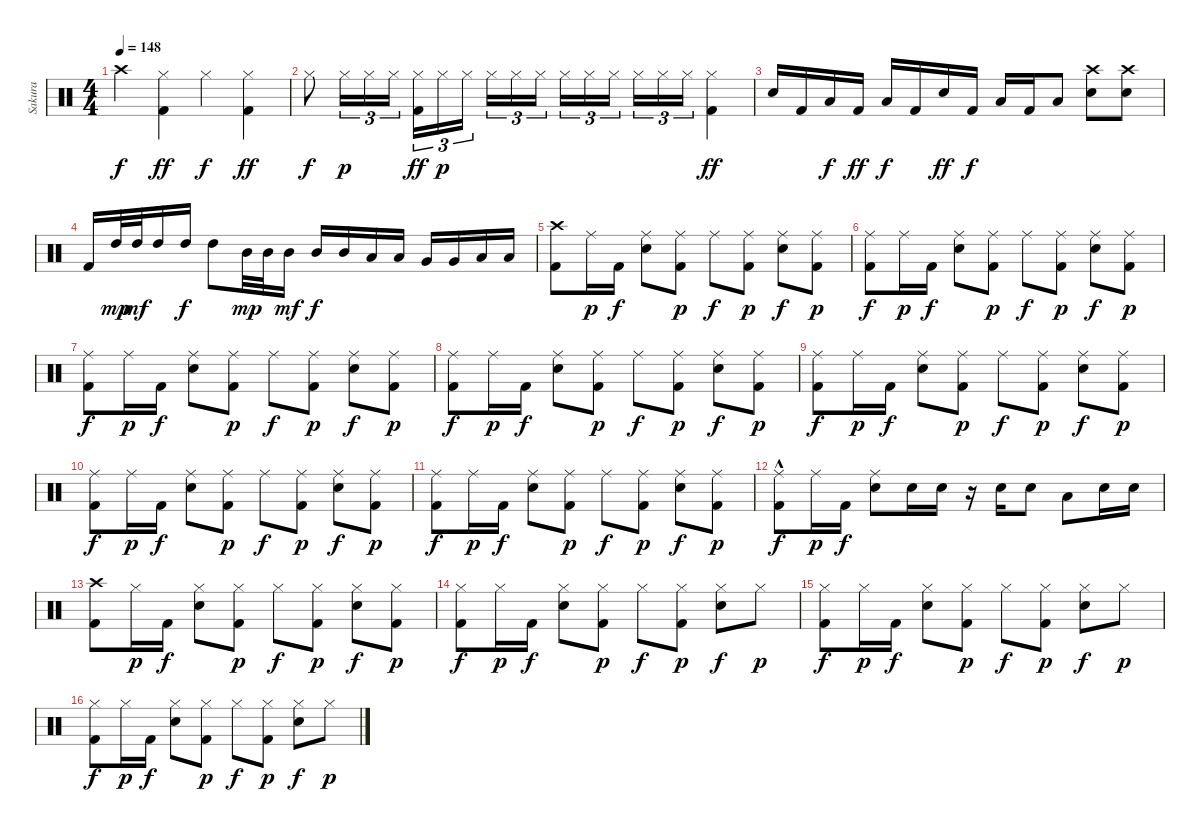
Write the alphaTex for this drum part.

\track ("Sakura" "Sakura") {instrument percussion}
\staff {score}
\articulation defaults
\ts (4 4)
\tempo 148
\clef neutral
\ks c "Crash high (hit)".4{dy f}
("Hi-Hat (closed)" "Kick (hit) 2").4{dy ff} "Hi-Hat (closed)".4{dy f} ("Hi-Hat (closed)" "Kick (hit) 2").4{dy ff} |
"Hi-Hat (closed)".8{dy f} "Hi-Hat (closed)".16{tu (3 2) dy p} "Hi-Hat (closed)".16{tu (3 2)} "Hi-Hat (closed)".16{tu (3 2)} ("Hi-Hat (closed)" "Kick (hit) 2").16{tu (3 2) dy ff} "Hi-Hat (closed)".16{tu (3 2) dy p} "Hi-Hat (closed)".16{tu (3 2)} "Hi-Hat (closed)".16{tu (3 2)} "Hi-Hat (closed)".16{tu (3 2)} "Hi-Hat (closed)".16{tu (3 2)} "Hi-Hat (closed)".16{tu (3 2)} "Hi-Hat (closed)".16{tu (3 2)} "Hi-Hat (closed)".16{tu (3 2)} "Hi-Hat (closed)".16{tu (3 2)} "Hi-Hat (closed)".16{tu (3 2)} "Hi-Hat (closed)".16{tu (3 2)} ("Hi-Hat (closed)" "Kick (hit) 2").4{dy ff} |
"Electric Snare (hit)".16 "Kick (hit) 2".16 "Low Floor Tom (hit)".16{dy f} "Kick (hit) 2".16{dy ff} "Low Floor Tom (hit)".16{dy f} "Kick (hit) 2".16 "Electric Snare (hit)".16{dy ff} "Kick (hit) 2".16{dy f} "Low Floor Tom (hit)".16 "Kick (hit) 2".16 "Low Floor Tom (hit)".8 ("Crash high (hit)" "Electric Snare (hit)").8 ("Crash high (hit)" "Electric Snare (hit)").8 |
"Kick (hit) 2".16 "High Tom (hit)".32{dy mp} "High Tom (hit)".32{dy mf} "High Tom (hit)".16 "High Tom (hit)".16{dy f} "High Tom (hit)".8 "Mid Tom (hit)".32{dy mp} "Mid Tom (hit)".32 "Mid Tom (hit)".16{dy mf} "Mid Tom (hit)".16{dy f} "Mid Tom (hit)".16 "Low Tom (hit)".16 "Low Tom (hit)".16 "Very Low Tom (hit)".16 "Very Low Tom (hit)".16 "Low Floor Tom (hit)".16 "Low Floor Tom (hit)".16 |
("Crash high (hit)" "Kick (hit) 2").8 "Ride (middle)".16{dy p} "Kick (hit) 2".16{dy f} ("Ride (middle)" "Electric Snare (hit)").8 ("Ride (middle)" "Kick (hit) 2").8{dy p} "Ride (middle)".8{dy f} ("Ride (middle)" "Kick (hit) 2").8{dy p} ("Ride (middle)" "Electric Snare (hit)").8{dy f} ("Ride (middle)" "Kick (hit) 2").8{dy p} |
("Ride (middle)" "Kick (hit) 2").8{dy f} "Ride (middle)".16{dy p} "Kick (hit) 2".16{dy f} ("Ride (middle)" "Electric Snare (hit)").8 ("Ride (middle)" "Kick (hit) 2").8{dy p} "Ride (middle)".8{dy f} ("Ride (middle)" "Kick (hit) 2").8{dy p} ("Ride (middle)" "Electric Snare (hit)").8{dy f} ("Ride (middle)" "Kick (hit) 2").8{dy p} |
("Ride (middle)" "Kick (hit) 2").8{dy f} "Ride (middle)".16{dy p} "Kick (hit) 2".16{dy f} ("Ride (middle)" "Electric Snare (hit)").8 ("Ride (middle)" "Kick (hit) 2").8{dy p} "Ride (middle)".8{dy f} ("Ride (middle)" "Kick (hit) 2").8{dy p} ("Ride (middle)" "Electric Snare (hit)").8{dy f} ("Ride (middle)" "Kick (hit) 2").8{dy p} |
("Ride (middle)" "Kick (hit) 2").8{dy f} "Ride (middle)".16{dy p} "Kick (hit) 2".16{dy f} ("Ride (middle)" "Electric Snare (hit)").8 ("Ride (middle)" "Kick (hit) 2").8{dy p} "Ride (middle)".8{dy f} ("Ride (middle)" "Kick (hit) 2").8{dy p} ("Ride (middle)" "Electric Snare (hit)").8{dy f} ("Ride (middle)" "Kick (hit) 2").8{dy p} |
("Ride (middle)" "Kick (hit) 2").8{dy f} "Ride (middle)".16{dy p} "Kick (hit) 2".16{dy f} ("Ride (middle)" "Electric Snare (hit)").8 ("Ride (middle)" "Kick (hit) 2").8{dy p} "Ride (middle)".8{dy f} ("Ride (middle)" "Kick (hit) 2").8{dy p} ("Ride (middle)" "Electric Snare (hit)").8{dy f} ("Ride (middle)" "Kick (hit) 2").8{dy p} |
("Ride (middle)" "Kick (hit) 2").8{dy f} "Ride (middle)".16{dy p} "Kick (hit) 2".16{dy f} ("Ride (middle)" "Electric Snare (hit)").8 ("Ride (middle)" "Kick (hit) 2").8{dy p} "Ride (middle)".8{dy f} ("Ride (middle)" "Kick (hit) 2").8{dy p} ("Ride (middle)" "Electric Snare (hit)").8{dy f} ("Ride (middle)" "Kick (hit) 2").8{dy p} |
("Ride (middle)" "Kick (hit) 2").8{dy f} "Ride (middle)".16{dy p} "Kick (hit) 2".16{dy f} ("Ride (middle)" "Electric Snare (hit)").8 ("Ride (middle)" "Kick (hit) 2").8{dy p} "Ride (middle)".8{dy f} ("Ride (middle)" "Kick (hit) 2").8{dy p} ("Ride (middle)" "Electric Snare (hit)").8{dy f} ("Ride (middle)" "Kick (hit) 2").8{dy p} |
("Ride (middle)"{hac} "Kick (hit) 2").8{dy f} "Ride (middle)".16{dy p} "Kick (hit) 2".16{dy f} ("Ride (middle)" "Electric Snare (hit)").8 "Electric Snare (hit)".16 "Electric Snare (hit)".16 r.16 "Electric Snare (hit)".16 "Electric Snare (hit)".8 "Low Tom (hit)".8 "Electric Snare (hit)".16 "Electric Snare (hit)".16 |
("Crash high (hit)" "Kick (hit) 2").8 "Hi-Hat (closed)".16{dy p} "Kick (hit) 2".16{dy f} ("Hi-Hat (closed)" "Electric Snare (hit)").8 ("Hi-Hat (closed)" "Kick (hit) 2").8{dy p} "Hi-Hat (closed)".8{dy f} ("Hi-Hat (closed)" "Kick (hit) 2").8{dy p} ("Hi-Hat (closed)" "Electric Snare (hit)").8{dy f} ("Hi-Hat (closed)" "Kick (hit) 2").8{dy p} |
("Hi-Hat (closed)" "Kick (hit) 2").8{dy f} "Hi-Hat (closed)".16{dy p} "Kick (hit) 2".16{dy f} ("Hi-Hat (closed)" "Electric Snare (hit)").8 ("Hi-Hat (closed)" "Kick (hit) 2").8{dy p} "Hi-Hat (closed)".8{dy f} ("Hi-Hat (closed)" "Kick (hit) 2").8{dy p} ("Hi-Hat (closed)" "Electric Snare (hit)").8{dy f} "Hi-Hat (closed)".8{dy p} |
("Hi-Hat (closed)" "Kick (hit) 2").8{dy f} "Hi-Hat (closed)".16{dy p} "Kick (hit) 2".16{dy f} ("Hi-Hat (closed)" "Electric Snare (hit)").8 ("Hi-Hat (closed)" "Kick (hit) 2").8{dy p} "Hi-Hat (closed)".8{dy f} ("Hi-Hat (closed)" "Kick (hit) 2").8{dy p} ("Hi-Hat (closed)" "Electric Snare (hit)").8{dy f} "Hi-Hat (closed)".8{dy p} |
("Hi-Hat (closed)" "Kick (hit) 2").8{dy f} "Hi-Hat (closed)".16{dy p} "Kick (hit) 2".16{dy f} ("Hi-Hat (closed)" "Electric Snare (hit)").8 ("Hi-Hat (closed)" "Kick (hit) 2").8{dy p} "Hi-Hat (closed)".8{dy f} ("Hi-Hat (closed)" "Kick (hit) 2").8{dy p} ("Hi-Hat (closed)" "Electric Snare (hit)").8{dy f} "Hi-Hat (closed)".8{dy p}
